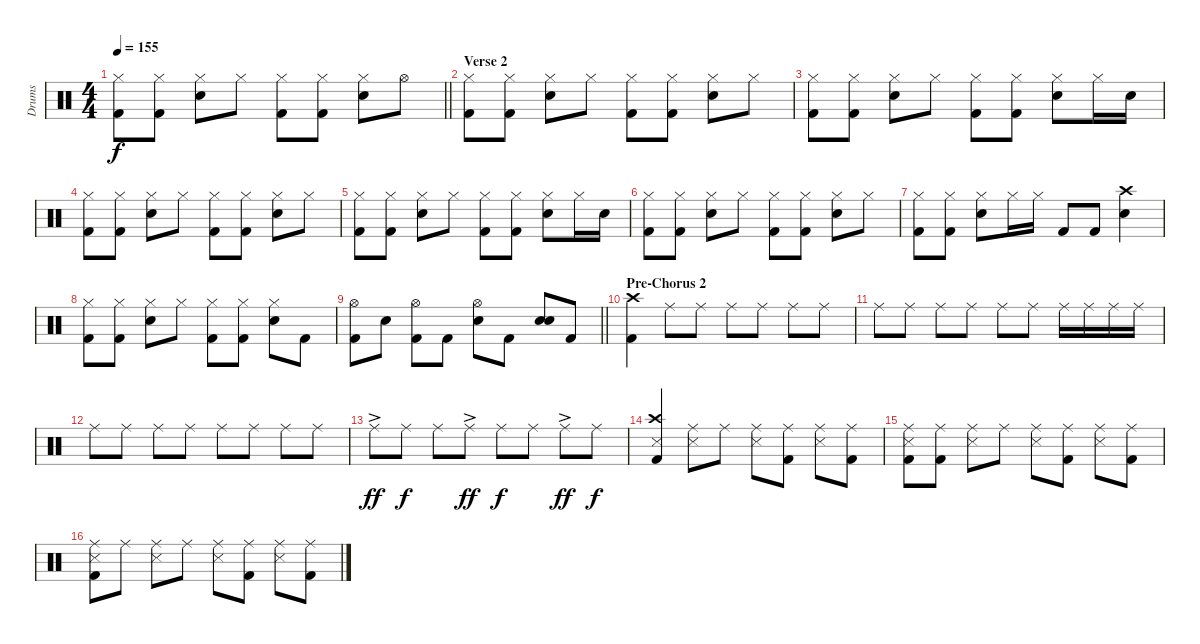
\track ("Drums" "Drums") {instrument percussion}
\staff {score}
\articulation defaults
\ts (4 4)
\tempo 155
\clef neutral
\barLineRight lightlight
\ks c
("Kick (hit) 2" "Hi-Hat (closed)").8{dy f} ("Kick (hit) 2" "Hi-Hat (closed)").8 ("Electric Snare (hit)" "Hi-Hat (closed)").8 "Hi-Hat (closed)".8 ("Kick (hit) 2" "Hi-Hat (closed)").8 ("Kick (hit) 2" "Hi-Hat (closed)").8 ("Electric Snare (hit)" "Hi-Hat (closed)").8 "Hi-Hat (open)".8 |
\section ("" "Verse 2")
("Kick (hit) 2" "Hi-Hat (closed)").8 ("Kick (hit) 2" "Hi-Hat (closed)").8 ("Electric Snare (hit)" "Hi-Hat (closed)").8 "Hi-Hat (closed)".8 ("Kick (hit) 2" "Hi-Hat (closed)").8 ("Kick (hit) 2" "Hi-Hat (closed)").8 ("Electric Snare (hit)" "Hi-Hat (closed)").8 "Hi-Hat (closed)".8 |
("Kick (hit) 2" "Hi-Hat (closed)").8 ("Kick (hit) 2" "Hi-Hat (closed)").8 ("Electric Snare (hit)" "Hi-Hat (closed)").8 "Hi-Hat (closed)".8 ("Kick (hit) 2" "Hi-Hat (closed)").8 ("Kick (hit) 2" "Hi-Hat (closed)").8 ("Electric Snare (hit)" "Hi-Hat (closed)").8 "Hi-Hat (closed)".16 "Electric Snare (hit)".16 |
("Kick (hit) 2" "Hi-Hat (closed)").8 ("Kick (hit) 2" "Hi-Hat (closed)").8 ("Electric Snare (hit)" "Hi-Hat (closed)").8 "Hi-Hat (closed)".8 ("Kick (hit) 2" "Hi-Hat (closed)").8 ("Kick (hit) 2" "Hi-Hat (closed)").8 ("Electric Snare (hit)" "Hi-Hat (closed)").8 "Hi-Hat (closed)".8 |
("Kick (hit) 2" "Hi-Hat (closed)").8 ("Kick (hit) 2" "Hi-Hat (closed)").8 ("Electric Snare (hit)" "Hi-Hat (closed)").8 "Hi-Hat (closed)".8 ("Kick (hit) 2" "Hi-Hat (closed)").8 ("Kick (hit) 2" "Hi-Hat (closed)").8 ("Electric Snare (hit)" "Hi-Hat (closed)").8 "Hi-Hat (closed)".16 "Electric Snare (hit)".16 |
("Kick (hit) 2" "Hi-Hat (closed)").8 ("Kick (hit) 2" "Hi-Hat (closed)").8 ("Electric Snare (hit)" "Hi-Hat (closed)").8 "Hi-Hat (closed)".8 ("Kick (hit) 2" "Hi-Hat (closed)").8 ("Kick (hit) 2" "Hi-Hat (closed)").8 ("Electric Snare (hit)" "Hi-Hat (closed)").8 "Hi-Hat (closed)".8 |
("Kick (hit) 2" "Hi-Hat (closed)").8 ("Kick (hit) 2" "Hi-Hat (closed)").8 ("Electric Snare (hit)" "Hi-Hat (closed)").8 "Hi-Hat (closed)".16 "Hi-Hat (closed)".16 "Kick (hit) 2".8 "Kick (hit) 2".8 ("Electric Snare (hit)" "Crash high (hit)").4 |
("Kick (hit) 2" "Hi-Hat (closed)").8 ("Kick (hit) 2" "Hi-Hat (closed)").8 ("Electric Snare (hit)" "Hi-Hat (closed)").8 "Hi-Hat (closed)".8 ("Kick (hit) 2" "Hi-Hat (closed)").8 ("Kick (hit) 2" "Hi-Hat (closed)").8 ("Electric Snare (hit)" "Hi-Hat (closed)").8 "Kick (hit) 2".8 |
\barLineRight lightlight
("Kick (hit) 2" "Hi-Hat (open)").8 "Electric Snare (hit)".8 ("Kick (hit) 2" "Hi-Hat (open)").8 "Kick (hit) 2".8 ("Electric Snare (hit)" "Hi-Hat (open)").8 "Kick (hit) 2".8 ("Electric Snare (hit)" "Electric Snare (hit)").8 "Kick (hit) 2".8 |
\section ("" "Pre-Chorus 2")
("Kick (hit) 2" "Crash high (hit)").4 "Ride (middle)".8 "Ride (middle)".8 "Ride (middle)".8 "Ride (middle)".8 "Ride (middle)".8 "Ride (middle)".8 |
"Ride (middle)".8 "Ride (middle)".8 "Ride (middle)".8 "Ride (middle)".8 "Ride (middle)".8 "Ride (middle)".8 "Ride (middle)".16 "Ride (middle)".16 "Ride (middle)".16 "Ride (middle)".16 |
"Ride (middle)".8 "Ride (middle)".8 "Ride (middle)".8 "Ride (middle)".8 "Ride (middle)".8 "Ride (middle)".8 "Ride (middle)".8 "Ride (middle)".8 |
"Ride (middle)"{ac}.8{dy ff} "Ride (middle)".8{dy f} "Ride (middle)".8 "Ride (middle)"{ac}.8{dy ff} "Ride (middle)".8{dy f} "Ride (middle)".8 "Ride (middle)"{ac}.8{dy ff} "Ride (middle)".8{dy f} |
("Kick (hit) 2" "Snare (side stick) 3" "Crash high (hit)").4 ("Snare (side stick) 3" "Ride (middle)").8 "Ride (middle)".8 ("Snare (side stick) 3" "Ride (middle)").8 ("Kick (hit) 2" "Ride (middle)").8 ("Snare (side stick) 3" "Ride (middle)").8 ("Kick (hit) 2" "Ride (middle)").8 |
("Kick (hit) 2" "Snare (side stick) 3" "Ride (middle)").8 ("Kick (hit) 2" "Ride (middle)").8 ("Snare (side stick) 3" "Ride (middle)").8 "Ride (middle)".8 ("Snare (side stick) 3" "Ride (middle)").8 ("Kick (hit) 2" "Ride (middle)").8 ("Snare (side stick) 3" "Ride (middle)").8 ("Kick (hit) 2" "Ride (middle)").8 |
("Kick (hit) 2" "Snare (side stick) 3" "Ride (middle)").8 "Ride (middle)".8 ("Snare (side stick) 3" "Ride (middle)").8 "Ride (middle)".8 ("Snare (side stick) 3" "Ride (middle)").8 ("Kick (hit) 2" "Ride (middle)").8 ("Snare (side stick) 3" "Ride (middle)").8 ("Kick (hit) 2" "Ride (middle)").8
